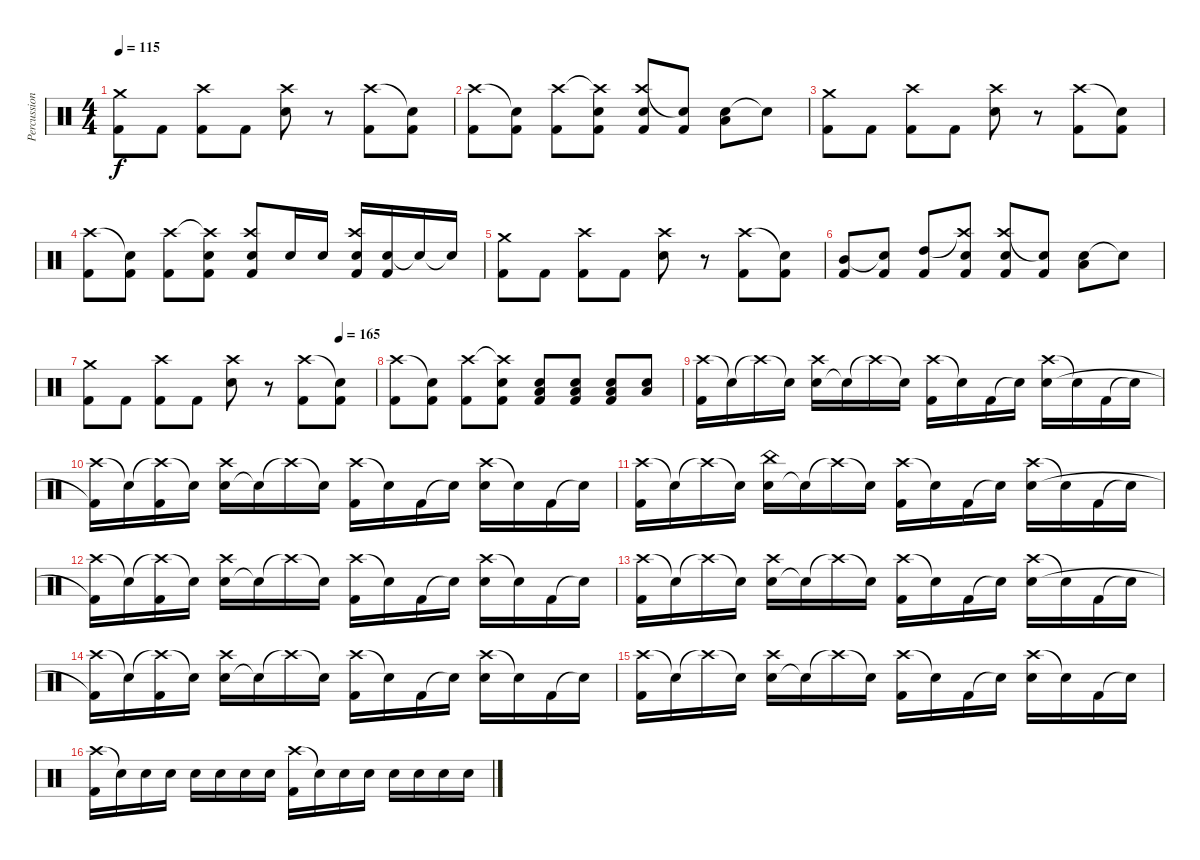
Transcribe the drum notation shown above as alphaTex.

\track ("Percussion" "Percussion") {instrument percussion}
\staff {score}
\articulation defaults
\ts (4 4)
\tempo 115
\clef neutral
\ks c
("Crash medium (hit)" "Kick (hit) 2").8{dy f} "Kick (hit) 2".8 ("Crash high (hit)" "Kick (hit) 2").8 "Kick (hit) 2".8 ("Crash high (hit)" "Electric Snare (hit)").8 r.8 ("Crash high (hit)" "Kick (hit) 2").8 ("Snare (hit)"{t} "Kick (hit) 2").8 |
("Crash high (hit)" "Kick (hit) 2").8 ("Snare (hit)"{t} "Kick (hit) 2").8 ("Crash high (hit)" "Kick (hit) 2").8 ("Crash high (hit)"{t} "Electric Snare (hit)" "Kick (hit) 2").8 ("Crash high (hit)" "Electric Snare (hit)" "Kick (hit) 2").8 ("Snare (hit)"{t} "Kick (hit) 2").8 ("Electric Snare (hit)" "Low Floor Tom (hit)").8 "Snare (hit)"{t}.8 |
("Crash medium (hit)" "Kick (hit) 2").8 "Kick (hit) 2".8 ("Crash high (hit)" "Kick (hit) 2").8 "Kick (hit) 2".8 ("Crash high (hit)" "Electric Snare (hit)").8 r.8 ("Crash high (hit)" "Kick (hit) 2").8 ("Snare (hit)"{t} "Kick (hit) 2").8 |
("Crash high (hit)" "Kick (hit) 2").8 ("Snare (hit)"{t} "Kick (hit) 2").8 ("Crash high (hit)" "Kick (hit) 2").8 ("Crash high (hit)"{t} "Electric Snare (hit)" "Kick (hit) 2").8 ("Crash high (hit)" "Electric Snare (hit)" "Kick (hit) 2").8 "Electric Snare (hit)".16 "Electric Snare (hit)".16 ("Electric Snare (hit)" "Kick (hit) 2" "Crash high (hit)").16 ("Electric Snare (hit)" "Kick (hit) 2").16 "Snare (hit)"{t}.16 "Snare (hit)"{t}.16 |
("Crash medium (hit)" "Kick (hit) 2").8 "Kick (hit) 2".8 ("Crash high (hit)" "Kick (hit) 2").8 "Kick (hit) 2".8 ("Crash high (hit)" "Electric Snare (hit)").8 r.8 ("Crash high (hit)" "Kick (hit) 2").8 ("Snare (hit)"{t} "Kick (hit) 2").8 |
("Mid Tom (hit)" "Kick (hit) 2").8 ("Snare (hit)"{t} "Kick (hit) 2").8 ("High Tom (hit)" "Kick (hit) 2").8 ("Crash high (hit)"{t} "Electric Snare (hit)" "Kick (hit) 2").8 ("Crash high (hit)" "Electric Snare (hit)" "Kick (hit) 2").8 ("Snare (hit)"{t} "Kick (hit) 2").8 ("Electric Snare (hit)" "Low Floor Tom (hit)").8 "Snare (hit)"{t}.8 |
\tempo (165 0.875)
("Crash medium (hit)" "Kick (hit) 2").8 "Kick (hit) 2".8 ("Crash high (hit)" "Kick (hit) 2").8 "Kick (hit) 2".8 ("Crash high (hit)" "Electric Snare (hit)").8 r.8 ("Crash high (hit)" "Kick (hit) 2").8 ("Snare (hit)"{t} "Kick (hit) 2").8 |
("Crash high (hit)" "Kick (hit) 2").8 ("Snare (hit)"{t} "Kick (hit) 2").8 ("Crash high (hit)" "Kick (hit) 2").8 ("Crash high (hit)"{t} "Electric Snare (hit)" "Kick (hit) 2").8 ("Kick (hit) 2" "Low Floor Tom (hit)" "Electric Snare (hit)").8 ("Kick (hit) 2" "Low Floor Tom (hit)" "Electric Snare (hit)").8 ("Kick (hit) 2" "Low Floor Tom (hit)" "Electric Snare (hit)").8 ("Low Floor Tom (hit)" "Electric Snare (hit)").8 |
("Crash high (hit)" "Kick (hit) 2").16 "Snare (hit)"{t}.16 "Crash high (hit)"{t}.16 "Snare (hit)"{t}.16 ("Electric Snare (hit)" "Crash high (hit)").16 "Snare (hit)"{t}.16 "Crash high (hit)"{t}.16 "Snare (hit)"{t}.16 ("Crash high (hit)" "Kick (hit) 2").16 "Snare (hit)"{t}.16 "Kick (hit) 2".16 "Snare (hit)"{t}.16 ("Crash high (hit)" "Electric Snare (hit)").16 "Snare (hit)"{t}.16 "Kick (hit) 2".16 "Snare (hit)"{t}.16 |
("Crash high (hit)" "Kick (hit) 2"{t}).16 "Snare (hit)"{t}.16 ("Crash high (hit)"{t} "Kick (hit) 2").16 "Snare (hit)"{t}.16 ("Electric Snare (hit)" "Crash high (hit)").16 "Snare (hit)"{t}.16 "Crash high (hit)"{t}.16 "Snare (hit)"{t}.16 ("Crash high (hit)" "Kick (hit) 2").16 "Snare (hit)"{t}.16 "Kick (hit) 2".16 "Snare (hit)"{t}.16 ("Crash high (hit)" "Electric Snare (hit)").16 "Snare (hit)"{t}.16 "Kick (hit) 2".16 "Snare (hit)"{t}.16 |
("Crash high (hit)" "Kick (hit) 2").16 "Snare (hit)"{t}.16 "Crash high (hit)"{t}.16 "Snare (hit)"{t}.16 ("Electric Snare (hit)" "China (hit)").16 "Snare (hit)"{t}.16 "Crash high (hit)"{t}.16 "Snare (hit)"{t}.16 ("Crash high (hit)" "Kick (hit) 2").16 "Snare (hit)"{t}.16 "Kick (hit) 2".16 "Snare (hit)"{t}.16 ("Crash high (hit)" "Electric Snare (hit)").16 "Snare (hit)"{t}.16 "Kick (hit) 2".16 "Snare (hit)"{t}.16 |
("Crash high (hit)" "Kick (hit) 2"{t}).16 "Snare (hit)"{t}.16 ("Crash high (hit)"{t} "Kick (hit) 2").16 "Snare (hit)"{t}.16 ("Electric Snare (hit)" "Crash high (hit)").16 "Snare (hit)"{t}.16 "Crash high (hit)"{t}.16 "Snare (hit)"{t}.16 ("Crash high (hit)" "Kick (hit) 2").16 "Snare (hit)"{t}.16 "Kick (hit) 2".16 "Snare (hit)"{t}.16 ("Crash high (hit)" "Electric Snare (hit)").16 "Snare (hit)"{t}.16 "Kick (hit) 2".16 "Snare (hit)"{t}.16 |
("Crash high (hit)" "Kick (hit) 2").16 "Snare (hit)"{t}.16 "Crash high (hit)"{t}.16 "Snare (hit)"{t}.16 ("Electric Snare (hit)" "Crash high (hit)").16 "Snare (hit)"{t}.16 "Crash high (hit)"{t}.16 "Snare (hit)"{t}.16 ("Crash high (hit)" "Kick (hit) 2").16 "Snare (hit)"{t}.16 "Kick (hit) 2".16 "Snare (hit)"{t}.16 ("Crash high (hit)" "Electric Snare (hit)").16 "Snare (hit)"{t}.16 "Kick (hit) 2".16 "Snare (hit)"{t}.16 |
("Crash high (hit)" "Kick (hit) 2"{t}).16 "Snare (hit)"{t}.16 ("Crash high (hit)"{t} "Kick (hit) 2").16 "Snare (hit)"{t}.16 ("Electric Snare (hit)" "Crash high (hit)").16 "Snare (hit)"{t}.16 "Crash high (hit)"{t}.16 "Snare (hit)"{t}.16 ("Crash high (hit)" "Kick (hit) 2").16 "Snare (hit)"{t}.16 "Kick (hit) 2".16 "Snare (hit)"{t}.16 ("Crash high (hit)" "Electric Snare (hit)").16 "Snare (hit)"{t}.16 "Kick (hit) 2".16 "Snare (hit)"{t}.16 |
("Crash high (hit)" "Kick (hit) 2").16 "Snare (hit)"{t}.16 "Crash high (hit)"{t}.16 "Snare (hit)"{t}.16 ("Electric Snare (hit)" "Crash high (hit)").16 "Snare (hit)"{t}.16 "Crash high (hit)"{t}.16 "Snare (hit)"{t}.16 ("Crash high (hit)" "Kick (hit) 2").16 "Snare (hit)"{t}.16 "Kick (hit) 2".16 "Snare (hit)"{t}.16 ("Crash high (hit)" "Electric Snare (hit)").16 "Snare (hit)"{t}.16 "Kick (hit) 2".16 "Snare (hit)"{t}.16 |
("Crash high (hit)" "Kick (hit) 2").16 "Snare (hit)"{t}.16 "Electric Snare (hit)".16 "Electric Snare (hit)".16 "Electric Snare (hit)".16 "Electric Snare (hit)".16 "Electric Snare (hit)".16 "Electric Snare (hit)".16 ("Crash high (hit)" "Kick (hit) 2").16 "Snare (hit)"{t}.16 "Electric Snare (hit)".16 "Electric Snare (hit)".16 "Electric Snare (hit)".16 "Electric Snare (hit)".16 "Electric Snare (hit)".16 "Electric Snare (hit)".16
